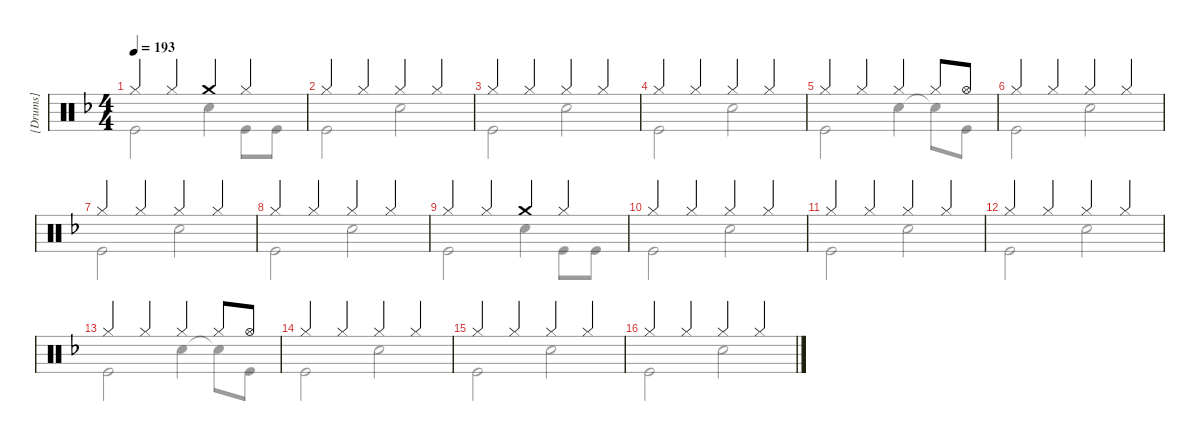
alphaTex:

\hideDynamics
\bracketExtendMode groupsimilarinstruments
\firstSystemTrackNameMode fullname
\otherSystemsTrackNameMode fullname
\otherSystemsTrackNameOrientation horizontal
\track ("[Drums]" "Drums") {instrument percussion}
\staff {score}
\articulation defaults
\voice
\ts (4 4)
\tempo 193
\clef neutral
\ks f "Hi-Hat (closed)".4{dy ff} "Hi-Hat (closed)".4 "Crash medium (hit)".4 "Hi-Hat (closed)".4
|
"Hi-Hat (closed)".4 "Hi-Hat (closed)".4 "Hi-Hat (closed)".4 "Hi-Hat (closed)".4 |
"Hi-Hat (closed)".4 "Hi-Hat (closed)".4 "Hi-Hat (closed)".4 "Hi-Hat (closed)".4 |
"Hi-Hat (closed)".4 "Hi-Hat (closed)".4 "Hi-Hat (closed)".4 "Hi-Hat (closed)".4 |
"Hi-Hat (closed)".4 "Hi-Hat (closed)".4 "Hi-Hat (closed)".4 "Hi-Hat (closed)".8 "Hi-Hat (open)".8 |
"Hi-Hat (closed)".4 "Hi-Hat (closed)".4 "Hi-Hat (closed)".4 "Hi-Hat (closed)".4 |
"Hi-Hat (closed)".4 "Hi-Hat (closed)".4 "Hi-Hat (closed)".4 "Hi-Hat (closed)".4 |
"Hi-Hat (closed)".4 "Hi-Hat (closed)".4 "Hi-Hat (closed)".4 "Hi-Hat (closed)".4 |
"Hi-Hat (closed)".4 "Hi-Hat (closed)".4 "Crash medium (hit)".4 "Hi-Hat (closed)".4 |
"Hi-Hat (closed)".4 "Hi-Hat (closed)".4 "Hi-Hat (closed)".4 "Hi-Hat (closed)".4 |
"Hi-Hat (closed)".4 "Hi-Hat (closed)".4 "Hi-Hat (closed)".4 "Hi-Hat (closed)".4 |
"Hi-Hat (closed)".4 "Hi-Hat (closed)".4 "Hi-Hat (closed)".4 "Hi-Hat (closed)".4 |
"Hi-Hat (closed)".4 "Hi-Hat (closed)".4 "Hi-Hat (closed)".4 "Hi-Hat (closed)".8 "Hi-Hat (open)".8 |
"Hi-Hat (closed)".4 "Hi-Hat (closed)".4 "Hi-Hat (closed)".4 "Hi-Hat (closed)".4 |
"Hi-Hat (closed)".4 "Hi-Hat (closed)".4 "Hi-Hat (closed)".4 "Hi-Hat (closed)".4 |
"Hi-Hat (closed)".4 "Hi-Hat (closed)".4 "Hi-Hat (closed)".4 "Hi-Hat (closed)".4
\voice
\clef neutral
\ottava regular
\simile none
\ks f "Kick (hit)".2{dy f} "Snare (hit) 2".4 "Kick (hit)".8 "Kick (hit)".8
|
"Kick (hit)".2 "Snare (hit) 2".2 |
"Kick (hit)".2 "Snare (hit) 2".2 |
"Kick (hit)".2 "Snare (hit) 2".2 |
"Kick (hit)".2 "Snare (hit) 2".4 "Snare (hit) 2"{t}.8 "Kick (hit)".8 |
"Kick (hit)".2 "Snare (hit) 2".2 |
"Kick (hit)".2 "Snare (hit) 2".2 |
"Kick (hit)".2 "Snare (hit) 2".2 |
"Kick (hit)".2 "Snare (hit) 2".4 "Kick (hit)".8 "Kick (hit)".8 |
"Kick (hit)".2 "Snare (hit) 2".2 |
"Kick (hit)".2 "Snare (hit) 2".2 |
"Kick (hit)".2 "Snare (hit) 2".2 |
"Kick (hit)".2 "Snare (hit) 2".4 "Snare (hit) 2"{t}.8 "Kick (hit)".8 |
"Kick (hit)".2 "Snare (hit) 2".2 |
"Kick (hit)".2 "Snare (hit) 2".2 |
"Kick (hit)".2 "Snare (hit) 2".2
